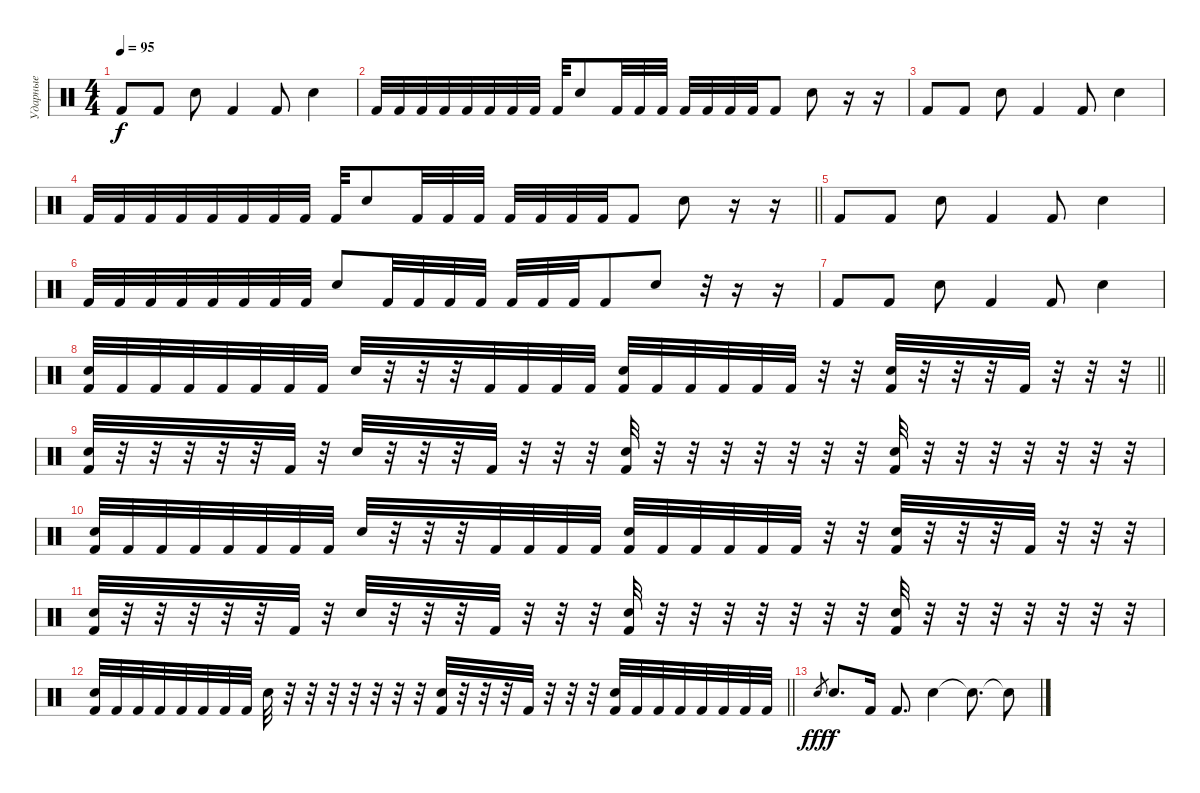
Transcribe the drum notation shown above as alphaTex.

\track ("Ударные" "Ударные") {instrument percussion}
\staff {score}
\articulation defaults
\ts (4 4)
\tempo 95
\clef neutral
\ks c "Kick (hit) 2".8{dy f} "Kick (hit) 2".8 "Electric Snare (hit)".8 "Kick (hit) 2".4 "Kick (hit) 2".8 "Electric Snare (hit)".4
|
"Kick (hit) 2".32 "Kick (hit) 2".32 "Kick (hit) 2".32 "Kick (hit) 2".32 "Kick (hit) 2".32 "Kick (hit) 2".32 "Kick (hit) 2".32 "Kick (hit) 2".32 "Kick (hit) 2".32 "Electric Snare (hit)".8 "Kick (hit) 2".32 "Kick (hit) 2".32 "Kick (hit) 2".32 "Kick (hit) 2".32 "Kick (hit) 2".32 "Kick (hit) 2".32 "Kick (hit) 2".32 "Kick (hit) 2".8 "Electric Snare (hit)".8 r.16 r.16 |
"Kick (hit) 2".8 "Kick (hit) 2".8 "Electric Snare (hit)".8 "Kick (hit) 2".4 "Kick (hit) 2".8 "Electric Snare (hit)".4 |
\barLineRight lightlight "Kick (hit) 2".32 "Kick (hit) 2".32 "Kick (hit) 2".32 "Kick (hit) 2".32 "Kick (hit) 2".32 "Kick (hit) 2".32 "Kick (hit) 2".32 "Kick (hit) 2".32 "Kick (hit) 2".32 "Electric Snare (hit)".8 "Kick (hit) 2".32 "Kick (hit) 2".32 "Kick (hit) 2".32 "Kick (hit) 2".32 "Kick (hit) 2".32 "Kick (hit) 2".32 "Kick (hit) 2".32 "Kick (hit) 2".8 "Electric Snare (hit)".8
r.16 r.16 |
"Kick (hit) 2".8 "Kick (hit) 2".8 "Electric Snare (hit)".8 "Kick (hit) 2".4 "Kick (hit) 2".8 "Electric Snare (hit)".4 |
"Kick (hit) 2".32 "Kick (hit) 2".32 "Kick (hit) 2".32 "Kick (hit) 2".32 "Kick (hit) 2".32 "Kick (hit) 2".32 "Kick (hit) 2".32 "Kick (hit) 2".32 "Electric Snare (hit)".8 "Kick (hit) 2".32 "Kick (hit) 2".32 "Kick (hit) 2".32 "Kick (hit) 2".32 "Kick (hit) 2".32 "Kick (hit) 2".32 "Kick (hit) 2".32 "Kick (hit) 2".8 "Electric Snare (hit)".8 r.32 r.16 r.16 |
"Kick (hit) 2".8 "Kick (hit) 2".8 "Electric Snare (hit)".8 "Kick (hit) 2".4 "Kick (hit) 2".8 "Electric Snare (hit)".4 |
\barLineRight lightlight
("Electric Snare (hit)" "Kick (hit) 2").32 "Kick (hit) 2".32 "Kick (hit) 2".32 "Kick (hit) 2".32 "Kick (hit) 2".32 "Kick (hit) 2".32 "Kick (hit) 2".32 "Kick (hit) 2".32 "Electric Snare (hit)".32 r.32 r.32 r.32 "Kick (hit) 2".32 "Kick (hit) 2".32 "Kick (hit) 2".32 "Kick (hit) 2".32 ("Electric Snare (hit)" "Kick (hit) 2").32 "Kick (hit) 2".32 "Kick (hit) 2".32 "Kick (hit) 2".32 "Kick (hit) 2".32 "Kick (hit) 2".32 r.32 r.32 ("Electric Snare (hit)" "Kick (hit) 2").32 r.32 r.32 r.32 "Kick (hit) 2".32 r.32 r.32 r.32 |
("Electric Snare (hit)" "Kick (hit) 2").32 r.32 r.32 r.32 r.32 r.32 "Kick (hit) 2".32 r.32 "Electric Snare (hit)".32 r.32 r.32 r.32 "Kick (hit) 2".32 r.32 r.32 r.32 ("Electric Snare (hit)" "Kick (hit) 2").32 r.32 r.32 r.32 r.32 r.32 r.32 r.32 ("Electric Snare (hit)" "Kick (hit) 2").32 r.32 r.32 r.32 r.32 r.32 r.32 r.32 |
("Electric Snare (hit)" "Kick (hit) 2").32 "Kick (hit) 2".32 "Kick (hit) 2".32 "Kick (hit) 2".32 "Kick (hit) 2".32 "Kick (hit) 2".32 "Kick (hit) 2".32 "Kick (hit) 2".32 "Electric Snare (hit)".32 r.32 r.32 r.32 "Kick (hit) 2".32 "Kick (hit) 2".32 "Kick (hit) 2".32 "Kick (hit) 2".32 ("Electric Snare (hit)" "Kick (hit) 2").32 "Kick (hit) 2".32 "Kick (hit) 2".32 "Kick (hit) 2".32 "Kick (hit) 2".32 "Kick (hit) 2".32 r.32 r.32 ("Electric Snare (hit)" "Kick (hit) 2").32 r.32 r.32 r.32 "Kick (hit) 2".32 r.32 r.32 r.32 |
("Electric Snare (hit)" "Kick (hit) 2").32 r.32 r.32 r.32 r.32 r.32 "Kick (hit) 2".32 r.32 "Electric Snare (hit)".32 r.32 r.32 r.32 "Kick (hit) 2".32 r.32 r.32 r.32 ("Electric Snare (hit)" "Kick (hit) 2").32 r.32 r.32 r.32 r.32 r.32 r.32 r.32 ("Electric Snare (hit)" "Kick (hit) 2").32 r.32 r.32 r.32 r.32 r.32 r.32 r.32 |
\barLineRight lightlight
("Electric Snare (hit)" "Kick (hit) 2").32 "Kick (hit) 2".32 "Kick (hit) 2".32 "Kick (hit) 2".32 "Kick (hit) 2".32 "Kick (hit) 2".32 "Kick (hit) 2".32 "Kick (hit) 2".32 "Electric Snare (hit)".32 r.32 r.32 r.32 r.32 r.32 r.32 r.32 ("Electric Snare (hit)" "Kick (hit) 2").32 r.32 r.32 r.32 "Kick (hit) 2".32 r.32 r.32 r.32 ("Electric Snare (hit)" "Kick (hit) 2").32 "Kick (hit) 2".32 "Kick (hit) 2".32 "Kick (hit) 2".32 "Kick (hit) 2".32 "Kick (hit) 2".32 "Kick (hit) 2".32 "Kick (hit) 2".32 |
"Electric Snare (hit)".8{gr dy fff} "Electric Snare (hit)".8{d dy f} "Kick (hit) 2".16 "Kick (hit) 2".8{d} "Electric Snare (hit)".4 "Snare (hit)"{t}.8{d} "Snare (hit)"{t}.8
